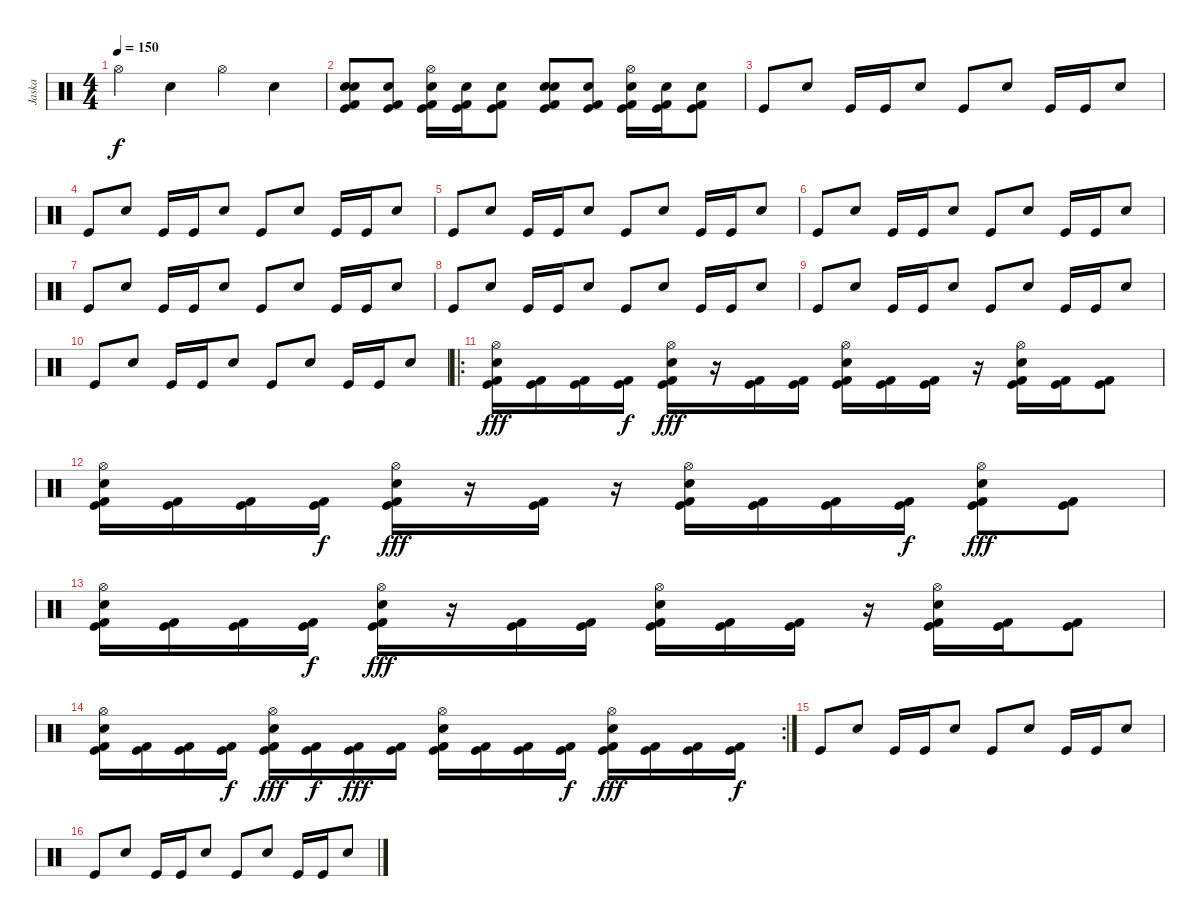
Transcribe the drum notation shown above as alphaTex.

\track ("Jaska" "Jaska") {instrument percussion}
\staff {score}
\articulation defaults
\ts (4 4)
\tempo 150
\clef neutral
\ks c "Hi-Hat (open)".4{dy f} "Electric Snare (hit)".4 "Hi-Hat (open)".4 "Electric Snare (hit)".4
|
("Electric Snare (hit)" "Snare (hit) 2" "Kick (hit)" "Kick (hit) 2").8 ("Snare (hit) 2" "Kick (hit)" "Kick (hit) 2").8 ("Hi-Hat (open)" "Snare (hit) 2" "Kick (hit)" "Kick (hit) 2").16 ("Snare (hit) 2" "Kick (hit)" "Kick (hit) 2").16 ("Snare (hit) 2" "Kick (hit)" "Kick (hit) 2").8 ("Electric Snare (hit)" "Snare (hit) 2" "Kick (hit)" "Kick (hit) 2").8 ("Snare (hit) 2" "Kick (hit)" "Kick (hit) 2").8 ("Hi-Hat (open)" "Snare (hit) 2" "Kick (hit)" "Kick (hit) 2").16 ("Snare (hit) 2" "Kick (hit)" "Kick (hit) 2").16 ("Snare (hit) 2" "Kick (hit)" "Kick (hit) 2").8 |
"Kick (hit)".8 "Electric Snare (hit)".8 "Kick (hit)".16 "Kick (hit)".16 "Electric Snare (hit)".8 "Kick (hit)".8 "Electric Snare (hit)".8 "Kick (hit)".16 "Kick (hit)".16 "Electric Snare (hit)".8 |
"Kick (hit)".8 "Electric Snare (hit)".8 "Kick (hit)".16 "Kick (hit)".16 "Electric Snare (hit)".8 "Kick (hit)".8 "Electric Snare (hit)".8 "Kick (hit)".16 "Kick (hit)".16 "Electric Snare (hit)".8 |
"Kick (hit)".8 "Electric Snare (hit)".8 "Kick (hit)".16 "Kick (hit)".16 "Electric Snare (hit)".8 "Kick (hit)".8 "Electric Snare (hit)".8 "Kick (hit)".16 "Kick (hit)".16 "Electric Snare (hit)".8 |
"Kick (hit)".8 "Electric Snare (hit)".8 "Kick (hit)".16 "Kick (hit)".16 "Electric Snare (hit)".8 "Kick (hit)".8 "Electric Snare (hit)".8 "Kick (hit)".16 "Kick (hit)".16 "Electric Snare (hit)".8 |
"Kick (hit)".8 "Electric Snare (hit)".8 "Kick (hit)".16 "Kick (hit)".16 "Electric Snare (hit)".8 "Kick (hit)".8 "Electric Snare (hit)".8 "Kick (hit)".16 "Kick (hit)".16 "Electric Snare (hit)".8 |
"Kick (hit)".8 "Electric Snare (hit)".8 "Kick (hit)".16 "Kick (hit)".16 "Electric Snare (hit)".8 "Kick (hit)".8 "Electric Snare (hit)".8 "Kick (hit)".16 "Kick (hit)".16 "Electric Snare (hit)".8 |
"Kick (hit)".8 "Electric Snare (hit)".8 "Kick (hit)".16 "Kick (hit)".16 "Electric Snare (hit)".8 "Kick (hit)".8 "Electric Snare (hit)".8 "Kick (hit)".16 "Kick (hit)".16 "Electric Snare (hit)".8 |
"Kick (hit)".8 "Electric Snare (hit)".8 "Kick (hit)".16 "Kick (hit)".16 "Electric Snare (hit)".8 "Kick (hit)".8 "Electric Snare (hit)".8 "Kick (hit)".16 "Kick (hit)".16 "Electric Snare (hit)".8 |
\ro
("Hi-Hat (open)" "Electric Snare (hit)" "Kick (hit)" "Kick (hit) 2").16{dy fff} ("Kick (hit)" "Kick (hit) 2").16 ("Kick (hit)" "Kick (hit) 2").16 ("Kick (hit)" "Kick (hit) 2").16{dy f} ("Hi-Hat (open)" "Electric Snare (hit)" "Kick (hit)" "Kick (hit) 2").16{dy fff} r.16 ("Kick (hit)" "Kick (hit) 2").16 ("Kick (hit)" "Kick (hit) 2").16 ("Hi-Hat (open)" "Electric Snare (hit)" "Kick (hit)" "Kick (hit) 2").16 ("Kick (hit)" "Kick (hit) 2").16 ("Kick (hit)" "Kick (hit) 2").16 r.16 ("Hi-Hat (open)" "Electric Snare (hit)" "Kick (hit)" "Kick (hit) 2").16 ("Kick (hit)" "Kick (hit) 2").16 ("Kick (hit)" "Kick (hit) 2").8 |
("Hi-Hat (open)" "Electric Snare (hit)" "Kick (hit)" "Kick (hit) 2").16 ("Kick (hit)" "Kick (hit) 2").16 ("Kick (hit)" "Kick (hit) 2").16 ("Kick (hit)" "Kick (hit) 2").16{dy f} ("Hi-Hat (open)" "Electric Snare (hit)" "Kick (hit)" "Kick (hit) 2").16{dy fff} r.16 ("Kick (hit)" "Kick (hit) 2").16 r.16 ("Hi-Hat (open)" "Electric Snare (hit)" "Kick (hit)" "Kick (hit) 2").16 ("Kick (hit)" "Kick (hit) 2").16 ("Kick (hit)" "Kick (hit) 2").16 ("Kick (hit)" "Kick (hit) 2").16{dy f} ("Hi-Hat (open)" "Electric Snare (hit)" "Kick (hit)" "Kick (hit) 2").8{dy fff} ("Kick (hit)" "Kick (hit) 2").8 |
("Hi-Hat (open)" "Electric Snare (hit)" "Kick (hit)" "Kick (hit) 2").16 ("Kick (hit)" "Kick (hit) 2").16 ("Kick (hit)" "Kick (hit) 2").16 ("Kick (hit)" "Kick (hit) 2").16{dy f} ("Hi-Hat (open)" "Electric Snare (hit)" "Kick (hit)" "Kick (hit) 2").16{dy fff} r.16 ("Kick (hit)" "Kick (hit) 2").16 ("Kick (hit)" "Kick (hit) 2").16 ("Hi-Hat (open)" "Electric Snare (hit)" "Kick (hit)" "Kick (hit) 2").16 ("Kick (hit)" "Kick (hit) 2").16 ("Kick (hit)" "Kick (hit) 2").16 r.16 ("Hi-Hat (open)" "Electric Snare (hit)" "Kick (hit)" "Kick (hit) 2").16 ("Kick (hit)" "Kick (hit) 2").16 ("Kick (hit)" "Kick (hit) 2").8 |
\rc 2
("Hi-Hat (open)" "Electric Snare (hit)" "Kick (hit)" "Kick (hit) 2").16 ("Kick (hit)" "Kick (hit) 2").16 ("Kick (hit)" "Kick (hit) 2").16 ("Kick (hit)" "Kick (hit) 2").16{dy f} ("Hi-Hat (open)" "Electric Snare (hit)" "Kick (hit)" "Kick (hit) 2").16{dy fff} ("Kick (hit)" "Kick (hit) 2").16{dy f} ("Kick (hit)" "Kick (hit) 2").16{dy fff} ("Kick (hit)" "Kick (hit) 2").16 ("Hi-Hat (open)" "Electric Snare (hit)" "Kick (hit)" "Kick (hit) 2").16 ("Kick (hit)" "Kick (hit) 2").16 ("Kick (hit)" "Kick (hit) 2").16 ("Kick (hit)" "Kick (hit) 2").16{dy f} ("Hi-Hat (open)" "Electric Snare (hit)" "Kick (hit)" "Kick (hit) 2").16{dy fff} ("Kick (hit)" "Kick (hit) 2").16 ("Kick (hit)" "Kick (hit) 2").16 ("Kick (hit)" "Kick (hit) 2").16{dy f} |
"Kick (hit)".8 "Electric Snare (hit)".8 "Kick (hit)".16 "Kick (hit)".16 "Electric Snare (hit)".8 "Kick (hit)".8 "Electric Snare (hit)".8 "Kick (hit)".16 "Kick (hit)".16 "Electric Snare (hit)".8 |
"Kick (hit)".8 "Electric Snare (hit)".8 "Kick (hit)".16 "Kick (hit)".16 "Electric Snare (hit)".8 "Kick (hit)".8 "Electric Snare (hit)".8 "Kick (hit)".16 "Kick (hit)".16 "Electric Snare (hit)".8
